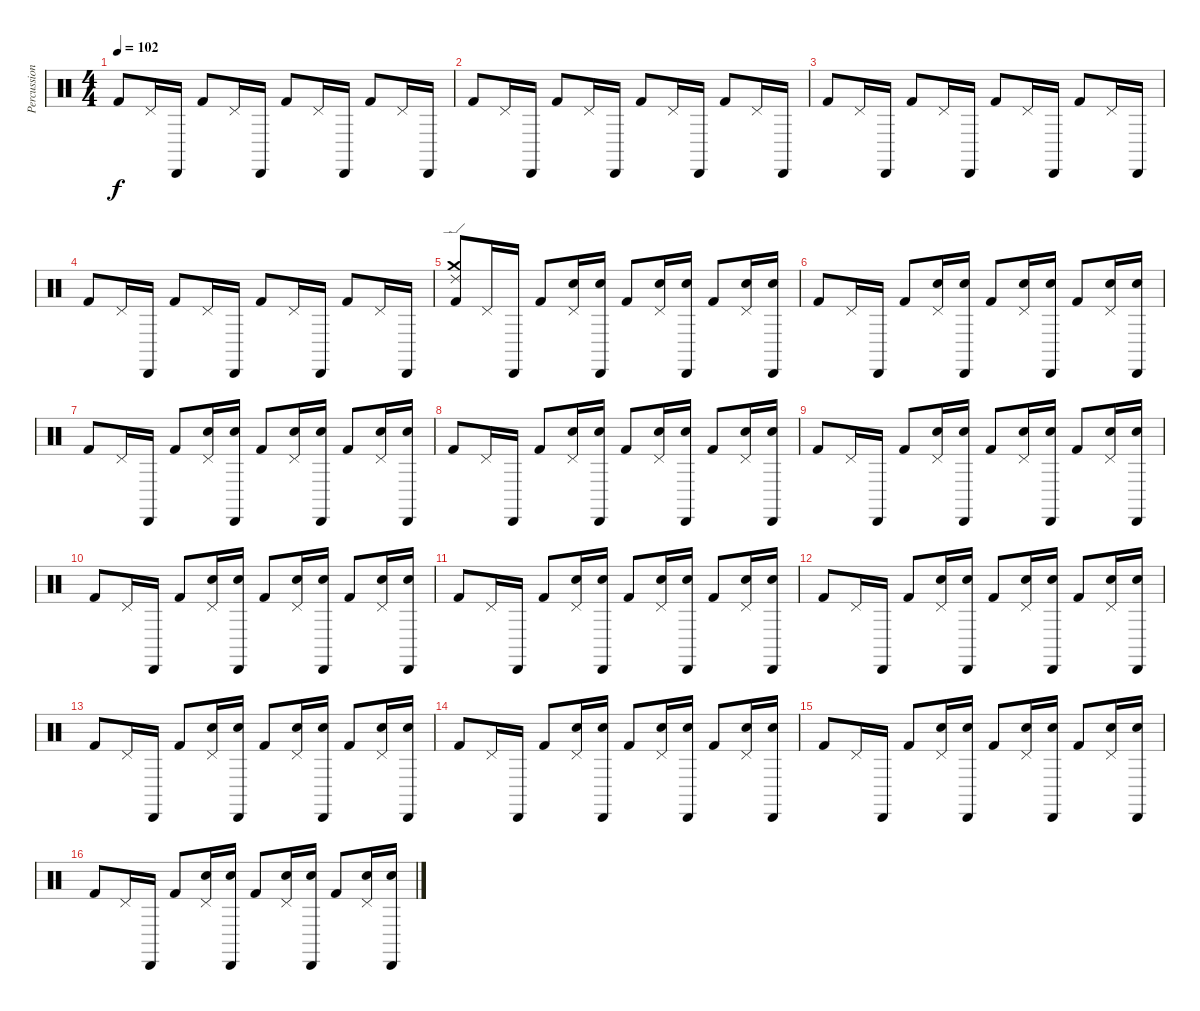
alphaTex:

\track ("Percussions" "Percussion") {instrument percussion}
\staff {score}
\articulation defaults
\ts (4 4)
\tempo 102
\clef neutral
\ks c "Kick (hit) 2".8{dy f} "Pedal Hi-Hat (hit)".16 "Cabasa (hit)".16 "Kick (hit) 2".8 "Pedal Hi-Hat (hit)".16 "Cabasa (hit)".16 "Kick (hit) 2".8 "Pedal Hi-Hat (hit)".16 "Cabasa (hit)".16 "Kick (hit) 2".8 "Pedal Hi-Hat (hit)".16 "Cabasa (hit)".16
|
"Kick (hit) 2".8 "Pedal Hi-Hat (hit)".16 "Cabasa (hit)".16 "Kick (hit) 2".8 "Pedal Hi-Hat (hit)".16 "Cabasa (hit)".16 "Kick (hit) 2".8 "Pedal Hi-Hat (hit)".16 "Cabasa (hit)".16 "Kick (hit) 2".8 "Pedal Hi-Hat (hit)".16 "Cabasa (hit)".16 |
"Kick (hit) 2".8 "Pedal Hi-Hat (hit)".16 "Cabasa (hit)".16 "Kick (hit) 2".8 "Pedal Hi-Hat (hit)".16 "Cabasa (hit)".16 "Kick (hit) 2".8 "Pedal Hi-Hat (hit)".16 "Cabasa (hit)".16 "Kick (hit) 2".8 "Pedal Hi-Hat (hit)".16 "Cabasa (hit)".16 |
"Kick (hit) 2".8 "Pedal Hi-Hat (hit)".16 "Cabasa (hit)".16 "Kick (hit) 2".8 "Pedal Hi-Hat (hit)".16 "Cabasa (hit)".16 "Kick (hit) 2".8 "Pedal Hi-Hat (hit)".16 "Cabasa (hit)".16 "Kick (hit) 2".8 "Pedal Hi-Hat (hit)".16 "Cabasa (hit)".16 |
("Crash medium (hit)" "Ride (edge) 2" "Kick (hit) 2").8 "Pedal Hi-Hat (hit)".16 "Cabasa (hit)".16 "Kick (hit) 2".8 ("Snare (hit) 2" "Pedal Hi-Hat (hit)").16 ("Snare (hit) 2" "Cabasa (hit)").16 "Kick (hit) 2".8 ("Snare (hit) 2" "Pedal Hi-Hat (hit)").16 ("Snare (hit) 2" "Cabasa (hit)").16 "Kick (hit) 2".8 ("Snare (hit) 2" "Pedal Hi-Hat (hit)").16 ("Snare (hit) 2" "Cabasa (hit)").16 |
"Kick (hit) 2".8 "Pedal Hi-Hat (hit)".16 "Cabasa (hit)".16 "Kick (hit) 2".8 ("Snare (hit) 2" "Pedal Hi-Hat (hit)").16 ("Snare (hit) 2" "Cabasa (hit)").16 "Kick (hit) 2".8 ("Snare (hit) 2" "Pedal Hi-Hat (hit)").16 ("Snare (hit) 2" "Cabasa (hit)").16 "Kick (hit) 2".8 ("Snare (hit) 2" "Pedal Hi-Hat (hit)").16 ("Snare (hit) 2" "Cabasa (hit)").16 |
"Kick (hit) 2".8 "Pedal Hi-Hat (hit)".16 "Cabasa (hit)".16 "Kick (hit) 2".8 ("Snare (hit) 2" "Pedal Hi-Hat (hit)").16 ("Snare (hit) 2" "Cabasa (hit)").16 "Kick (hit) 2".8 ("Snare (hit) 2" "Pedal Hi-Hat (hit)").16 ("Snare (hit) 2" "Cabasa (hit)").16 "Kick (hit) 2".8 ("Snare (hit) 2" "Pedal Hi-Hat (hit)").16 ("Snare (hit) 2" "Cabasa (hit)").16 |
"Kick (hit) 2".8 "Pedal Hi-Hat (hit)".16 "Cabasa (hit)".16 "Kick (hit) 2".8 ("Snare (hit) 2" "Pedal Hi-Hat (hit)").16 ("Snare (hit) 2" "Cabasa (hit)").16 "Kick (hit) 2".8 ("Snare (hit) 2" "Pedal Hi-Hat (hit)").16 ("Snare (hit) 2" "Cabasa (hit)").16 "Kick (hit) 2".8 ("Snare (hit) 2" "Pedal Hi-Hat (hit)").16 ("Snare (hit) 2" "Cabasa (hit)").16 |
"Kick (hit) 2".8 "Pedal Hi-Hat (hit)".16 "Cabasa (hit)".16 "Kick (hit) 2".8 ("Snare (hit) 2" "Pedal Hi-Hat (hit)").16 ("Snare (hit) 2" "Cabasa (hit)").16 "Kick (hit) 2".8 ("Snare (hit) 2" "Pedal Hi-Hat (hit)").16 ("Snare (hit) 2" "Cabasa (hit)").16 "Kick (hit) 2".8 ("Snare (hit) 2" "Pedal Hi-Hat (hit)").16 ("Snare (hit) 2" "Cabasa (hit)").16 |
"Kick (hit) 2".8 "Pedal Hi-Hat (hit)".16 "Cabasa (hit)".16 "Kick (hit) 2".8 ("Snare (hit) 2" "Pedal Hi-Hat (hit)").16 ("Snare (hit) 2" "Cabasa (hit)").16 "Kick (hit) 2".8 ("Snare (hit) 2" "Pedal Hi-Hat (hit)").16 ("Snare (hit) 2" "Cabasa (hit)").16 "Kick (hit) 2".8 ("Snare (hit) 2" "Pedal Hi-Hat (hit)").16 ("Snare (hit) 2" "Cabasa (hit)").16 |
"Kick (hit) 2".8 "Pedal Hi-Hat (hit)".16 "Cabasa (hit)".16 "Kick (hit) 2".8 ("Snare (hit) 2" "Pedal Hi-Hat (hit)").16 ("Snare (hit) 2" "Cabasa (hit)").16 "Kick (hit) 2".8 ("Snare (hit) 2" "Pedal Hi-Hat (hit)").16 ("Snare (hit) 2" "Cabasa (hit)").16 "Kick (hit) 2".8 ("Snare (hit) 2" "Pedal Hi-Hat (hit)").16 ("Snare (hit) 2" "Cabasa (hit)").16 |
"Kick (hit) 2".8 "Pedal Hi-Hat (hit)".16 "Cabasa (hit)".16 "Kick (hit) 2".8 ("Snare (hit) 2" "Pedal Hi-Hat (hit)").16 ("Snare (hit) 2" "Cabasa (hit)").16 "Kick (hit) 2".8 ("Snare (hit) 2" "Pedal Hi-Hat (hit)").16 ("Snare (hit) 2" "Cabasa (hit)").16 "Kick (hit) 2".8 ("Snare (hit) 2" "Pedal Hi-Hat (hit)").16 ("Snare (hit) 2" "Cabasa (hit)").16 |
"Kick (hit) 2".8 "Pedal Hi-Hat (hit)".16 "Cabasa (hit)".16 "Kick (hit) 2".8 ("Snare (hit) 2" "Pedal Hi-Hat (hit)").16 ("Snare (hit) 2" "Cabasa (hit)").16 "Kick (hit) 2".8 ("Snare (hit) 2" "Pedal Hi-Hat (hit)").16 ("Snare (hit) 2" "Cabasa (hit)").16 "Kick (hit) 2".8 ("Snare (hit) 2" "Pedal Hi-Hat (hit)").16 ("Snare (hit) 2" "Cabasa (hit)").16 |
"Kick (hit) 2".8 "Pedal Hi-Hat (hit)".16 "Cabasa (hit)".16 "Kick (hit) 2".8 ("Snare (hit) 2" "Pedal Hi-Hat (hit)").16 ("Snare (hit) 2" "Cabasa (hit)").16 "Kick (hit) 2".8 ("Snare (hit) 2" "Pedal Hi-Hat (hit)").16 ("Snare (hit) 2" "Cabasa (hit)").16 "Kick (hit) 2".8 ("Snare (hit) 2" "Pedal Hi-Hat (hit)").16 ("Snare (hit) 2" "Cabasa (hit)").16 |
"Kick (hit) 2".8 "Pedal Hi-Hat (hit)".16 "Cabasa (hit)".16 "Kick (hit) 2".8 ("Snare (hit) 2" "Pedal Hi-Hat (hit)").16 ("Snare (hit) 2" "Cabasa (hit)").16 "Kick (hit) 2".8 ("Snare (hit) 2" "Pedal Hi-Hat (hit)").16 ("Snare (hit) 2" "Cabasa (hit)").16 "Kick (hit) 2".8 ("Snare (hit) 2" "Pedal Hi-Hat (hit)").16 ("Snare (hit) 2" "Cabasa (hit)").16 |
"Kick (hit) 2".8 "Pedal Hi-Hat (hit)".16 "Cabasa (hit)".16 "Kick (hit) 2".8 ("Snare (hit) 2" "Pedal Hi-Hat (hit)").16 ("Snare (hit) 2" "Cabasa (hit)").16 "Kick (hit) 2".8 ("Snare (hit) 2" "Pedal Hi-Hat (hit)").16 ("Snare (hit) 2" "Cabasa (hit)").16 "Kick (hit) 2".8 ("Snare (hit) 2" "Pedal Hi-Hat (hit)").16 ("Snare (hit) 2" "Cabasa (hit)").16
